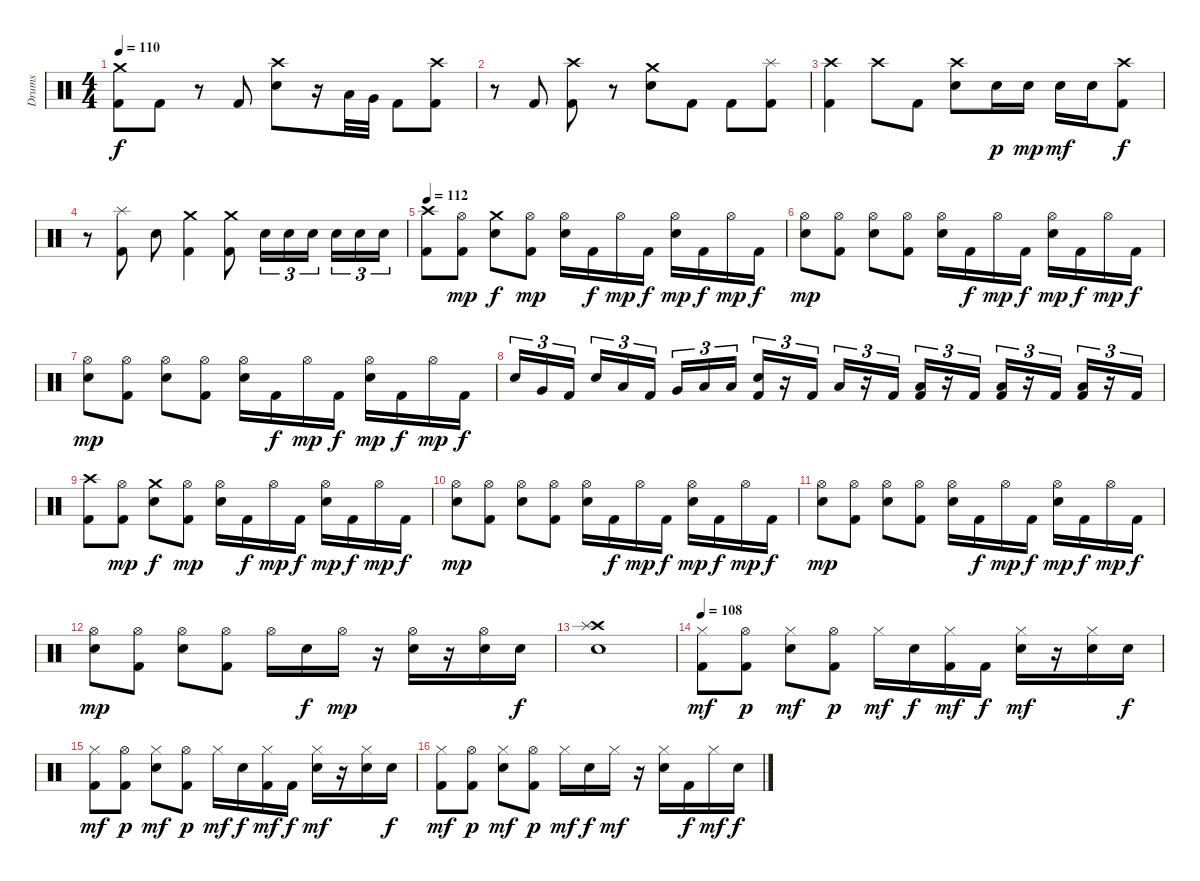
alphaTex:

\track ("Drums" "Drums") {instrument percussion}
\staff {score}
\articulation defaults
\ts (4 4)
\tempo 110
\clef neutral
\ks c
("Crash medium (hit)" "Kick (hit) 2").8{dy f} "Kick (hit) 2".8 r.8 "Kick (hit) 2".8 ("Crash high (hit)" "Electric Snare (hit)").8 r.16 "Low Tom (hit)".32 "Very Low Tom (hit)".32 "Kick (hit) 2".8 ("Crash high (hit)" "Kick (hit) 2").8 |
r.8 "Kick (hit) 2".8 ("Crash high (hit)" "Kick (hit) 2").8 r.8 ("Crash medium (hit)" "Electric Snare (hit)").8 "Kick (hit) 2".8 "Kick (hit) 2".8 ("Splash (hit)" "Kick (hit) 2").8 |
("Crash high (hit)" "Kick (hit) 2").4 "Crash high (hit)".8 "Kick (hit) 2".8 ("Crash high (hit)" "Electric Snare (hit)").8 "Electric Snare (hit)".16{dy p} "Electric Snare (hit)".16{dy mp} "Electric Snare (hit)".16{dy mf} "Electric Snare (hit)".16 ("Crash high (hit)" "Kick (hit) 2").8{dy f} |
r.8 ("Splash (hit)" "Kick (hit) 2").8 "Electric Snare (hit)".8 ("Crash medium (hit)" "Kick (hit) 2").4 ("Crash medium (hit)" "Kick (hit) 2").8 "Electric Snare (hit)".16{tu (3 2)} "Electric Snare (hit)".16{tu (3 2)} "Electric Snare (hit)".16{tu (3 2)} "Electric Snare (hit)".16{tu (3 2)} "Electric Snare (hit)".16{tu (3 2)} "Electric Snare (hit)".16{tu (3 2)} |
\tempo 112
("Crash high (hit)" "Kick (hit) 2").8 ("Hi-Hat (open)" "Kick (hit) 2").8{dy mp} ("Crash medium (hit)" "Electric Snare (hit)").8{dy f} ("Hi-Hat (open)" "Kick (hit) 2").8{dy mp} ("Hi-Hat (open)" "Electric Snare (hit)").16 "Kick (hit) 2".16{dy f} "Hi-Hat (open)".16{dy mp} "Kick (hit) 2".16{dy f} ("Hi-Hat (open)" "Electric Snare (hit)").16{dy mp} "Kick (hit) 2".16{dy f} "Hi-Hat (open)".16{dy mp} "Kick (hit) 2".16{dy f} |
("Hi-Hat (open)" "Electric Snare (hit)").8{dy mp} ("Hi-Hat (open)" "Kick (hit) 2").8 ("Hi-Hat (open)" "Electric Snare (hit)").8 ("Hi-Hat (open)" "Kick (hit) 2").8 ("Hi-Hat (open)" "Electric Snare (hit)").16 "Kick (hit) 2".16{dy f} "Hi-Hat (open)".16{dy mp} "Kick (hit) 2".16{dy f} ("Hi-Hat (open)" "Electric Snare (hit)").16{dy mp} "Kick (hit) 2".16{dy f} "Hi-Hat (open)".16{dy mp} "Kick (hit) 2".16{dy f} |
("Hi-Hat (open)" "Electric Snare (hit)").8{dy mp} ("Hi-Hat (open)" "Kick (hit) 2").8 ("Hi-Hat (open)" "Electric Snare (hit)").8 ("Hi-Hat (open)" "Kick (hit) 2").8 ("Hi-Hat (open)" "Electric Snare (hit)").16 "Kick (hit) 2".16{dy f} "Hi-Hat (open)".16{dy mp} "Kick (hit) 2".16{dy f} ("Hi-Hat (open)" "Electric Snare (hit)").16{dy mp} "Kick (hit) 2".16{dy f} "Hi-Hat (open)".16{dy mp} "Kick (hit) 2".16{dy f} |
"Electric Snare (hit)".16{tu (3 2)} "Very Low Tom (hit)".16{tu (3 2)} "Kick (hit) 2".16{tu (3 2)} "Electric Snare (hit)".16{tu (3 2)} "Low Floor Tom (hit)".16{tu (3 2)} "Kick (hit) 2".16{tu (3 2)} "Very Low Tom (hit)".16{tu (3 2)} "Low Floor Tom (hit)".16{tu (3 2)} "Low Floor Tom (hit)".16{tu (3 2)} ("Electric Snare (hit)" "Kick (hit) 2").16{tu (3 2)} r.16{tu (3 2)} "Kick (hit) 2".16{tu (3 2)} "Low Floor Tom (hit)".16{tu (3 2)} r.16{tu (3 2)} "Kick (hit) 2".16{tu (3 2)} ("Low Floor Tom (hit)" "Kick (hit) 2").16{tu (3 2)} r.16{tu (3 2)} "Kick (hit) 2".16{tu (3 2)} ("Low Floor Tom (hit)" "Kick (hit) 2").16{tu (3 2)} r.16{tu (3 2)} "Kick (hit) 2".16{tu (3 2)} ("Low Floor Tom (hit)" "Kick (hit) 2").16{tu (3 2)} r.16{tu (3 2)} "Kick (hit) 2".16{tu (3 2)} |
("Crash high (hit)" "Kick (hit) 2").8 ("Hi-Hat (open)" "Kick (hit) 2").8{dy mp} ("Crash medium (hit)" "Electric Snare (hit)").8{dy f} ("Hi-Hat (open)" "Kick (hit) 2").8{dy mp} ("Hi-Hat (open)" "Electric Snare (hit)").16 "Kick (hit) 2".16{dy f} "Hi-Hat (open)".16{dy mp} "Kick (hit) 2".16{dy f} ("Hi-Hat (open)" "Electric Snare (hit)").16{dy mp} "Kick (hit) 2".16{dy f} "Hi-Hat (open)".16{dy mp} "Kick (hit) 2".16{dy f} |
("Hi-Hat (open)" "Electric Snare (hit)").8{dy mp} ("Hi-Hat (open)" "Kick (hit) 2").8 ("Hi-Hat (open)" "Electric Snare (hit)").8 ("Hi-Hat (open)" "Kick (hit) 2").8 ("Hi-Hat (open)" "Electric Snare (hit)").16 "Kick (hit) 2".16{dy f} "Hi-Hat (open)".16{dy mp} "Kick (hit) 2".16{dy f} ("Hi-Hat (open)" "Electric Snare (hit)").16{dy mp} "Kick (hit) 2".16{dy f} "Hi-Hat (open)".16{dy mp} "Kick (hit) 2".16{dy f} |
("Hi-Hat (open)" "Electric Snare (hit)").8{dy mp} ("Hi-Hat (open)" "Kick (hit) 2").8 ("Hi-Hat (open)" "Electric Snare (hit)").8 ("Hi-Hat (open)" "Kick (hit) 2").8 ("Hi-Hat (open)" "Electric Snare (hit)").16 "Kick (hit) 2".16{dy f} "Hi-Hat (open)".16{dy mp} "Kick (hit) 2".16{dy f} ("Hi-Hat (open)" "Electric Snare (hit)").16{dy mp} "Kick (hit) 2".16{dy f} "Hi-Hat (open)".16{dy mp} "Kick (hit) 2".16{dy f} |
("Hi-Hat (open)" "Electric Snare (hit)").8{dy mp} ("Hi-Hat (open)" "Kick (hit) 2").8 ("Hi-Hat (open)" "Electric Snare (hit)").8 ("Hi-Hat (open)" "Kick (hit) 2").8 "Hi-Hat (open)".16 "Electric Snare (hit)".16{dy f} "Hi-Hat (open)".16{dy mp} r.16 ("Hi-Hat (open)" "Electric Snare (hit)").16 r.16 ("Hi-Hat (open)" "Electric Snare (hit)").16 "Electric Snare (hit)".16{dy f} |
("Crash high (hit)" "Splash (hit)" "Electric Snare (hit)").1 |
\tempo 108
("Hi-Hat (closed)" "Kick (hit) 2").8{dy mf} ("Hi-Hat (open)" "Kick (hit) 2").8{dy p} ("Hi-Hat (closed)" "Electric Snare (hit)").8{dy mf} ("Hi-Hat (open)" "Kick (hit) 2").8{dy p} "Hi-Hat (closed)".16{dy mf} "Electric Snare (hit)".16{dy f} ("Hi-Hat (closed)" "Kick (hit) 2").16{dy mf} "Kick (hit) 2".16{dy f} ("Hi-Hat (closed)" "Electric Snare (hit)").16{dy mf} r.16 ("Hi-Hat (closed)" "Electric Snare (hit)").16 "Electric Snare (hit)".16{dy f} |
("Hi-Hat (closed)" "Kick (hit) 2").8{dy mf} ("Hi-Hat (open)" "Kick (hit) 2").8{dy p} ("Hi-Hat (closed)" "Electric Snare (hit)").8{dy mf} ("Hi-Hat (open)" "Kick (hit) 2").8{dy p} "Hi-Hat (closed)".16{dy mf} "Electric Snare (hit)".16{dy f} ("Hi-Hat (closed)" "Kick (hit) 2").16{dy mf} "Kick (hit) 2".16{dy f} ("Hi-Hat (closed)" "Electric Snare (hit)").16{dy mf} r.16 ("Hi-Hat (closed)" "Electric Snare (hit)").16 "Electric Snare (hit)".16{dy f} |
("Hi-Hat (closed)" "Kick (hit) 2").8{dy mf} ("Hi-Hat (open)" "Kick (hit) 2").8{dy p} ("Hi-Hat (closed)" "Electric Snare (hit)").8{dy mf} ("Hi-Hat (open)" "Kick (hit) 2").8{dy p} "Hi-Hat (closed)".16{dy mf} "Electric Snare (hit)".16{dy f} "Hi-Hat (closed)".16{dy mf} r.16 ("Hi-Hat (closed)" "Electric Snare (hit)").16 "Kick (hit) 2".16{dy f} "Hi-Hat (closed)".16{dy mf} "Electric Snare (hit)".16{dy f}
